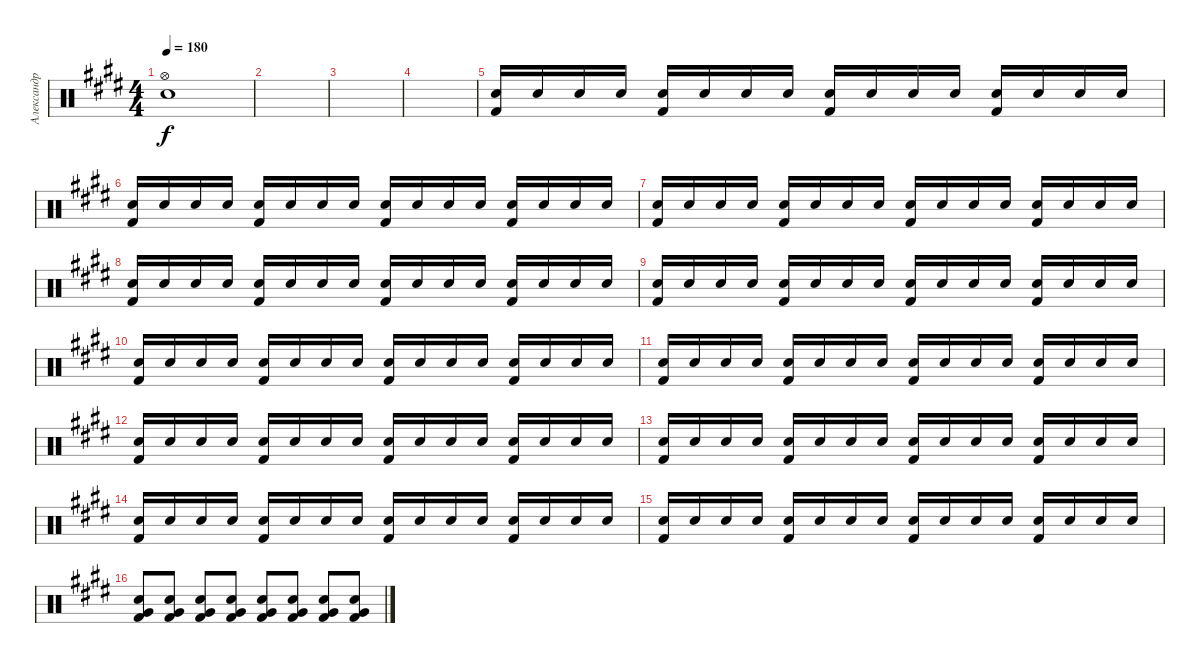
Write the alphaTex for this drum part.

\track ("Александр Новиков" "Александр ") {instrument percussion}
\staff {score}
\articulation defaults
\ts (4 4)
\tempo 180
\clef neutral
\ks c#minor
("Electric Snare (hit)" "Hi-Hat (open)").1{dy f} |
|
|
|
("Electric Snare (hit)" "Kick (hit) 2").16{volume 0} "Electric Snare (hit)".16{volume 10} "Electric Snare (hit)".16 "Electric Snare (hit)".16 ("Electric Snare (hit)" "Kick (hit) 2").16 "Electric Snare (hit)".16 "Electric Snare (hit)".16 "Electric Snare (hit)".16 ("Electric Snare (hit)" "Kick (hit) 2").16 "Electric Snare (hit)".16 "Electric Snare (hit)".16 "Electric Snare (hit)".16 ("Electric Snare (hit)" "Kick (hit) 2").16 "Electric Snare (hit)".16 "Electric Snare (hit)".16 "Electric Snare (hit)".16 |
("Electric Snare (hit)" "Kick (hit) 2").16 "Electric Snare (hit)".16 "Electric Snare (hit)".16 "Electric Snare (hit)".16 ("Electric Snare (hit)" "Kick (hit) 2").16 "Electric Snare (hit)".16 "Electric Snare (hit)".16 "Electric Snare (hit)".16 ("Electric Snare (hit)" "Kick (hit) 2").16 "Electric Snare (hit)".16 "Electric Snare (hit)".16 "Electric Snare (hit)".16 ("Electric Snare (hit)" "Kick (hit) 2").16 "Electric Snare (hit)".16 "Electric Snare (hit)".16 "Electric Snare (hit)".16 |
("Electric Snare (hit)" "Kick (hit) 2").16 "Electric Snare (hit)".16 "Electric Snare (hit)".16 "Electric Snare (hit)".16 ("Electric Snare (hit)" "Kick (hit) 2").16 "Electric Snare (hit)".16 "Electric Snare (hit)".16 "Electric Snare (hit)".16 ("Electric Snare (hit)" "Kick (hit) 2").16 "Electric Snare (hit)".16 "Electric Snare (hit)".16 "Electric Snare (hit)".16 ("Electric Snare (hit)" "Kick (hit) 2").16 "Electric Snare (hit)".16 "Electric Snare (hit)".16 "Electric Snare (hit)".16 |
("Electric Snare (hit)" "Kick (hit) 2").16 "Electric Snare (hit)".16 "Electric Snare (hit)".16 "Electric Snare (hit)".16 ("Electric Snare (hit)" "Kick (hit) 2").16 "Electric Snare (hit)".16 "Electric Snare (hit)".16 "Electric Snare (hit)".16 ("Electric Snare (hit)" "Kick (hit) 2").16 "Electric Snare (hit)".16 "Electric Snare (hit)".16 "Electric Snare (hit)".16 ("Electric Snare (hit)" "Kick (hit) 2").16 "Electric Snare (hit)".16 "Electric Snare (hit)".16 "Electric Snare (hit)".16 |
("Electric Snare (hit)" "Kick (hit) 2").16 "Electric Snare (hit)".16 "Electric Snare (hit)".16 "Electric Snare (hit)".16 ("Electric Snare (hit)" "Kick (hit) 2").16 "Electric Snare (hit)".16 "Electric Snare (hit)".16 "Electric Snare (hit)".16 ("Electric Snare (hit)" "Kick (hit) 2").16 "Electric Snare (hit)".16 "Electric Snare (hit)".16 "Electric Snare (hit)".16 ("Electric Snare (hit)" "Kick (hit) 2").16 "Electric Snare (hit)".16 "Electric Snare (hit)".16 "Electric Snare (hit)".16 |
("Electric Snare (hit)" "Kick (hit) 2").16 "Electric Snare (hit)".16 "Electric Snare (hit)".16 "Electric Snare (hit)".16 ("Electric Snare (hit)" "Kick (hit) 2").16 "Electric Snare (hit)".16 "Electric Snare (hit)".16 "Electric Snare (hit)".16 ("Electric Snare (hit)" "Kick (hit) 2").16 "Electric Snare (hit)".16 "Electric Snare (hit)".16 "Electric Snare (hit)".16 ("Electric Snare (hit)" "Kick (hit) 2").16 "Electric Snare (hit)".16 "Electric Snare (hit)".16 "Electric Snare (hit)".16 |
("Electric Snare (hit)" "Kick (hit) 2").16 "Electric Snare (hit)".16 "Electric Snare (hit)".16 "Electric Snare (hit)".16 ("Electric Snare (hit)" "Kick (hit) 2").16 "Electric Snare (hit)".16 "Electric Snare (hit)".16 "Electric Snare (hit)".16 ("Electric Snare (hit)" "Kick (hit) 2").16 "Electric Snare (hit)".16 "Electric Snare (hit)".16 "Electric Snare (hit)".16 ("Electric Snare (hit)" "Kick (hit) 2").16 "Electric Snare (hit)".16 "Electric Snare (hit)".16 "Electric Snare (hit)".16 |
("Electric Snare (hit)" "Kick (hit) 2").16 "Electric Snare (hit)".16 "Electric Snare (hit)".16 "Electric Snare (hit)".16 ("Electric Snare (hit)" "Kick (hit) 2").16 "Electric Snare (hit)".16 "Electric Snare (hit)".16 "Electric Snare (hit)".16 ("Electric Snare (hit)" "Kick (hit) 2").16 "Electric Snare (hit)".16 "Electric Snare (hit)".16 "Electric Snare (hit)".16 ("Electric Snare (hit)" "Kick (hit) 2").16 "Electric Snare (hit)".16 "Electric Snare (hit)".16 "Electric Snare (hit)".16 |
("Electric Snare (hit)" "Kick (hit) 2").16 "Electric Snare (hit)".16 "Electric Snare (hit)".16 "Electric Snare (hit)".16 ("Electric Snare (hit)" "Kick (hit) 2").16 "Electric Snare (hit)".16 "Electric Snare (hit)".16 "Electric Snare (hit)".16 ("Electric Snare (hit)" "Kick (hit) 2").16 "Electric Snare (hit)".16 "Electric Snare (hit)".16 "Electric Snare (hit)".16 ("Electric Snare (hit)" "Kick (hit) 2").16 "Electric Snare (hit)".16 "Electric Snare (hit)".16 "Electric Snare (hit)".16 |
("Electric Snare (hit)" "Kick (hit) 2").16 "Electric Snare (hit)".16 "Electric Snare (hit)".16 "Electric Snare (hit)".16 ("Electric Snare (hit)" "Kick (hit) 2").16 "Electric Snare (hit)".16 "Electric Snare (hit)".16 "Electric Snare (hit)".16 ("Electric Snare (hit)" "Kick (hit) 2").16 "Electric Snare (hit)".16 "Electric Snare (hit)".16 "Electric Snare (hit)".16 ("Electric Snare (hit)" "Kick (hit) 2").16 "Electric Snare (hit)".16 "Electric Snare (hit)".16 "Electric Snare (hit)".16 |
("Electric Snare (hit)" "Kick (hit) 2").16 "Electric Snare (hit)".16 "Electric Snare (hit)".16 "Electric Snare (hit)".16 ("Electric Snare (hit)" "Kick (hit) 2").16 "Electric Snare (hit)".16 "Electric Snare (hit)".16 "Electric Snare (hit)".16 ("Electric Snare (hit)" "Kick (hit) 2").16 "Electric Snare (hit)".16 "Electric Snare (hit)".16 "Electric Snare (hit)".16 ("Electric Snare (hit)" "Kick (hit) 2").16 "Electric Snare (hit)".16 "Electric Snare (hit)".16 "Electric Snare (hit)".16 |
("Very Low Tom (hit)" "Electric Snare (hit)" "Kick (hit) 2").8{volume 0} ("Very Low Tom (hit)" "Electric Snare (hit)" "Kick (hit) 2").8{volume 12} ("Very Low Tom (hit)" "Electric Snare (hit)" "Kick (hit) 2").8 ("Very Low Tom (hit)" "Electric Snare (hit)" "Kick (hit) 2").8 ("Very Low Tom (hit)" "Electric Snare (hit)" "Kick (hit) 2").8 ("Very Low Tom (hit)" "Electric Snare (hit)" "Kick (hit) 2").8 ("Very Low Tom (hit)" "Electric Snare (hit)" "Kick (hit) 2").8 ("Very Low Tom (hit)" "Electric Snare (hit)" "Kick (hit) 2").8
